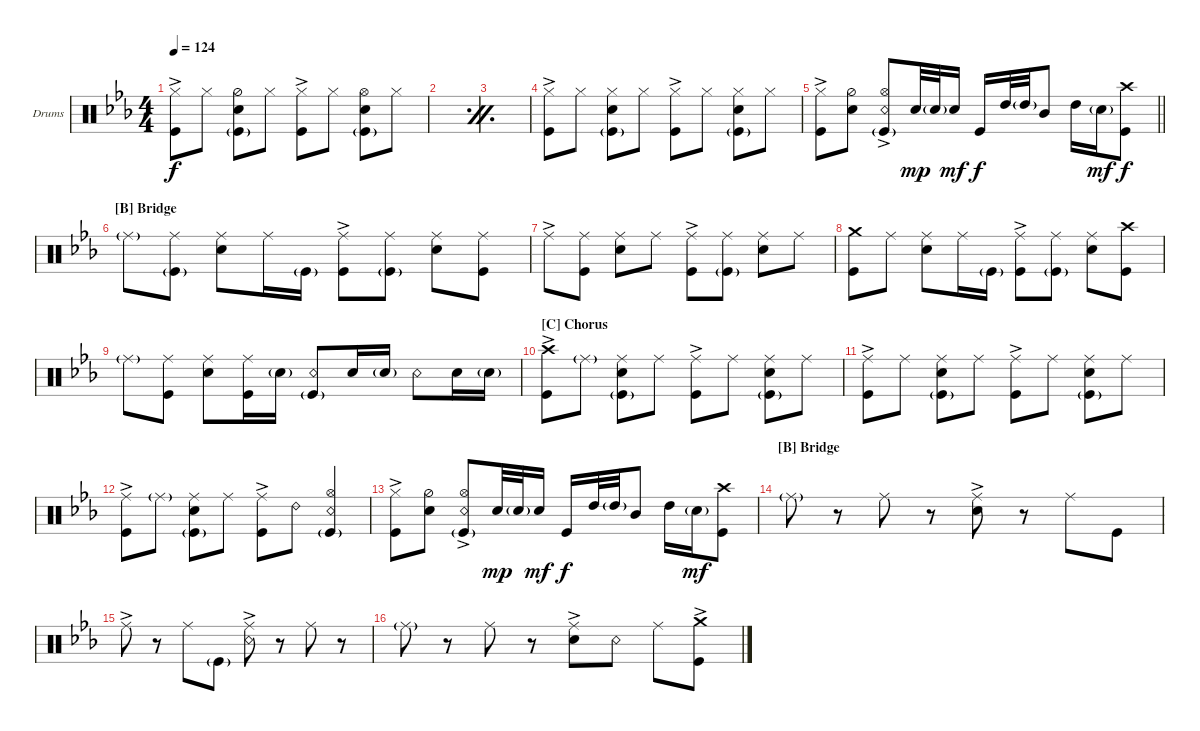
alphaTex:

\bracketExtendMode groupsimilarinstruments
\firstSystemTrackNameOrientation horizontal
\otherSystemsTrackNameOrientation horizontal
\track ("Drumkit" "Drums") {instrument percussion}
\staff {score}
\articulation defaults
\ts (4 4)
\tempo 124
\clef neutral
\ks cminor
("Kick (hit)" "Hi-Hat (closed)"{ac}).8{dy f} "Hi-Hat (closed)".8 ("Snare (hit) 2" "Hi-Hat (half)" "Kick (hit)"{g}).8 "Hi-Hat (closed)".8 ("Kick (hit)" "Hi-Hat (closed)"{ac}).8 "Hi-Hat (closed)".8 ("Snare (hit) 2" "Kick (hit)"{g} "Hi-Hat (open)").8 "Hi-Hat (closed)".8 |
\simile firstofdouble
|
\simile secondofdouble
|
\simile none
("Kick (hit)" "Hi-Hat (closed)"{ac}).8 "Hi-Hat (closed)".8 ("Snare (hit) 2" "Hi-Hat (closed)" "Kick (hit)"{g}).8 "Hi-Hat (closed)".8 ("Kick (hit)" "Hi-Hat (closed)"{ac}).8 "Hi-Hat (closed)".8 ("Snare (hit) 2" "Kick (hit)"{g} "Hi-Hat (closed)").8 "Hi-Hat (closed)".8 |
\barLineRight lightlight
("Kick (hit)" "Hi-Hat (closed)"{ac}).8 ("Hi-Hat (half)" "Snare (hit) 2").8 ("Snare (rim shot)" "Hi-Hat (open)"{ac} "Kick (hit)"{g}).8 "Snare (hit) 2".32{dy mp} "Snare (hit) 2"{g}.32 "Snare (hit) 2".16{dy mf} "Kick (hit)".16{dy f} "High Tom (hit)".32 "High Tom (hit)"{g}.32 "Mid Tom (hit)".8 "High Tom (hit)".16 "Snare (hit) 2"{g}.16{dy mf} ("Kick (hit)" "Crash high (hit)").8{dy f} |
\section ("B" "Bridge")
"Ride (middle)"{g}.8 ("Ride (middle)" "Kick (hit)"{g}).8 ("Ride (middle)" "Snare (hit) 2").8 "Ride (middle)".16 "Kick (hit)"{g}.16 ("Kick (hit)" "Ride (middle)"{ac}).8 ("Ride (middle)" "Kick (hit)"{g}).8 ("Snare (hit) 2" "Ride (middle)").8 ("Ride (middle)" "Kick (hit)").8 |
"Ride (middle)"{ac}.8 ("Ride (middle)" "Kick (hit)").8 ("Snare (hit) 2" "Ride (middle)").8 "Ride (middle)".8 ("Kick (hit)" "Ride (middle)"{ac}).8 ("Ride (middle)" "Kick (hit)"{g}).8 ("Snare (hit) 2" "Ride (middle)").8 "Ride (middle)".8 |
("Kick (hit)" "Crash medium (hit)").8 "Ride (middle)".8 ("Ride (middle)" "Snare (hit) 2").8 "Ride (middle)".16 "Kick (hit)"{g}.16 ("Kick (hit)" "Ride (middle)"{ac}).8 ("Ride (middle)" "Kick (hit)"{g}).8 ("Snare (hit) 2" "Ride (middle)").8 ("Kick (hit)" "Crash high (hit)").8 |
"Ride (middle)"{g}.8 ("Ride (middle)" "Kick (hit)").8 ("Snare (hit) 2" "Ride (middle)").8 ("Kick (hit)" "Ride (middle)").16 "Snare (hit) 2"{g}.16 ("Snare (rim shot)" "Kick (hit)"{g}).8 "Snare (hit) 2".16 "Snare (hit) 2"{g}.16 "Snare (rim shot)".8 "Snare (hit) 2".16 "Snare (hit) 2"{g}.16 |
\section ("C" "Chorus")
("Kick (hit)" "Crash high (hit)"{ac}).8 "Ride (middle)"{g}.8 ("Snare (hit) 2" "Ride (middle)" "Kick (hit)"{g}).8 "Ride (middle)".8 ("Kick (hit)" "Ride (middle)"{ac}).8 "Ride (middle)".8 ("Snare (hit) 2" "Ride (middle)" "Kick (hit)"{g}).8 "Ride (middle)".8 |
("Kick (hit)" "Ride (middle)"{ac}).8 "Ride (middle)".8 ("Snare (hit) 2" "Ride (middle)" "Kick (hit)"{g}).8 "Ride (middle)".8 ("Kick (hit)" "Ride (middle)"{ac}).8 "Ride (middle)".8 ("Snare (hit) 2" "Ride (middle)" "Kick (hit)"{g}).8 "Ride (middle)".8 |
("Kick (hit)" "Ride (middle)"{ac}).8 "Ride (middle)"{g}.8 ("Snare (hit) 2" "Ride (middle)" "Kick (hit)"{g}).8 "Ride (middle)".8 ("Kick (hit)" "Ride (middle)"{ac}).8 "Ride (bell) 2".8 ("Snare (rim shot)" "Kick (hit)"{g} "Hi-Hat (open)").4 |
("Kick (hit)" "Hi-Hat (closed)"{ac}).8 ("Hi-Hat (half)" "Snare (hit) 2").8 ("Snare (rim shot)" "Hi-Hat (open)"{ac} "Kick (hit)"{g}).8 "Snare (hit) 2".32{dy mp} "Snare (hit) 2"{g}.32 "Snare (hit) 2".16{dy mf} "Kick (hit)".16{dy f} "High Tom (hit)".32 "High Tom (hit)"{g}.32 "Mid Tom (hit)".8 "High Tom (hit)".16 "Snare (hit) 2"{g}.16{dy mf} ("Kick (hit)" "Crash high (hit)").8 |
\section ("B" "Bridge")
"Ride (middle)"{g}.8 r.8 "Ride (middle)".8 r.8 ("Ride (middle)"{ac} "Snare (hit) 2").8 r.8 "Ride (middle)".8 "Kick (hit)".8 |
"Ride (middle)"{ac}.8 r.8 "Ride (middle)".8 "Kick (hit)"{g}.8 ("Ride (middle)"{ac} "Snare (rim shot)").8 r.8 "Ride (middle)".8 r.8 |
"Ride (middle)"{g}.8 r.8 "Ride (middle)".8 r.8 ("Ride (middle)"{ac} "Snare (hit) 2").8 "Snare (rim shot)".8 "Ride (middle)".8 ("Kick (hit)" "Crash medium (hit)"{ac}).8
